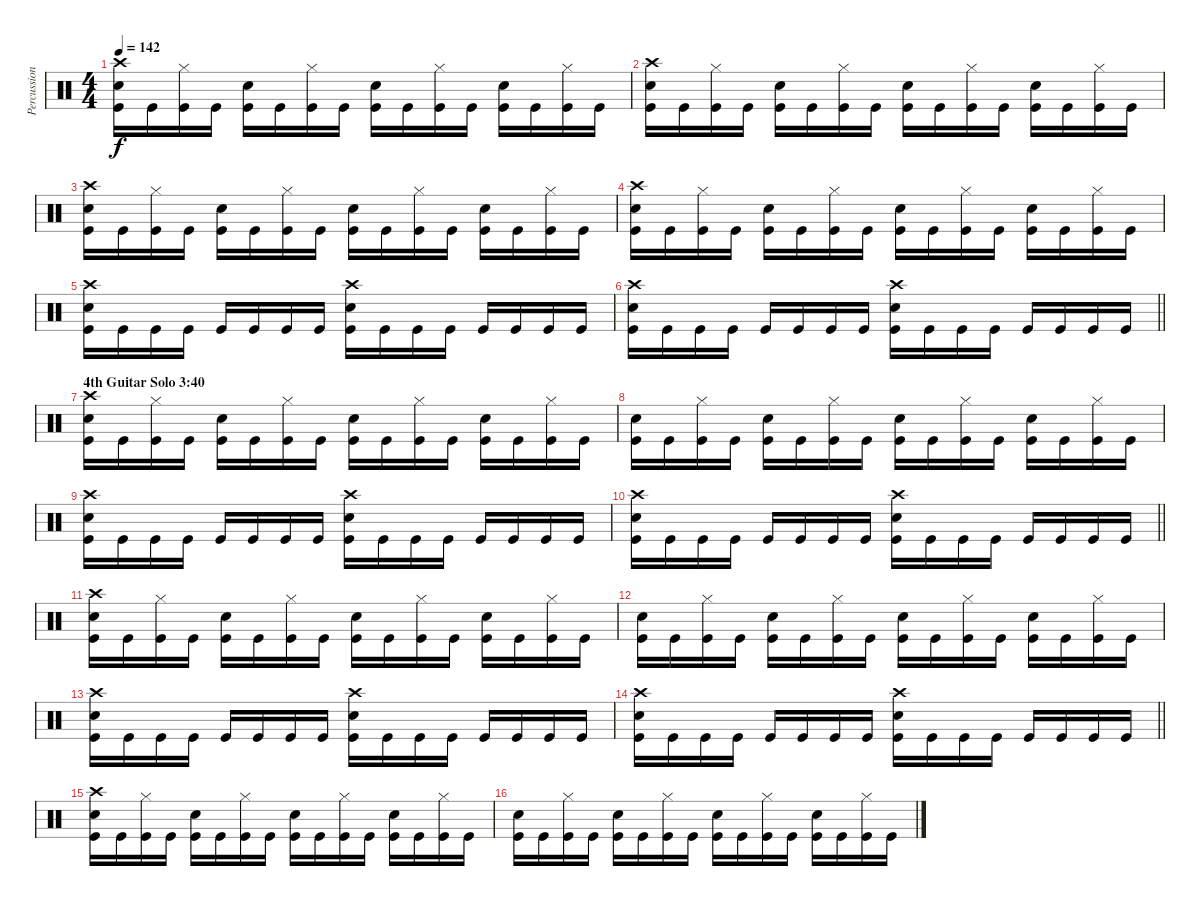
\track ("Percussion" "Percussion") {instrument percussion}
\staff {score}
\articulation defaults
\ts (4 4)
\tempo 142
\clef neutral
\ks c
("Crash high (hit)" "Snare (hit) 2" "Kick (hit)").16{dy f} "Kick (hit)".16 ("Hi-Hat (closed)" "Kick (hit)").16 "Kick (hit)".16 ("Snare (hit) 2" "Kick (hit)").16 "Kick (hit)".16 ("Hi-Hat (closed)" "Kick (hit)").16 "Kick (hit)".16 ("Snare (hit) 2" "Kick (hit)").16 "Kick (hit)".16 ("Hi-Hat (closed)" "Kick (hit)").16 "Kick (hit)".16 ("Snare (hit) 2" "Kick (hit)").16 "Kick (hit)".16 ("Hi-Hat (closed)" "Kick (hit)").16 "Kick (hit)".16 |
("Crash high (hit)" "Snare (hit) 2" "Kick (hit)").16 "Kick (hit)".16 ("Hi-Hat (closed)" "Kick (hit)").16 "Kick (hit)".16 ("Snare (hit) 2" "Kick (hit)").16 "Kick (hit)".16 ("Hi-Hat (closed)" "Kick (hit)").16 "Kick (hit)".16 ("Snare (hit) 2" "Kick (hit)").16 "Kick (hit)".16 ("Hi-Hat (closed)" "Kick (hit)").16 "Kick (hit)".16 ("Snare (hit) 2" "Kick (hit)").16 "Kick (hit)".16 ("Hi-Hat (closed)" "Kick (hit)").16 "Kick (hit)".16 |
("Crash high (hit)" "Snare (hit) 2" "Kick (hit)").16 "Kick (hit)".16 ("Hi-Hat (closed)" "Kick (hit)").16 "Kick (hit)".16 ("Snare (hit) 2" "Kick (hit)").16 "Kick (hit)".16 ("Hi-Hat (closed)" "Kick (hit)").16 "Kick (hit)".16 ("Snare (hit) 2" "Kick (hit)").16 "Kick (hit)".16 ("Hi-Hat (closed)" "Kick (hit)").16 "Kick (hit)".16 ("Snare (hit) 2" "Kick (hit)").16 "Kick (hit)".16 ("Hi-Hat (closed)" "Kick (hit)").16 "Kick (hit)".16 |
("Crash high (hit)" "Snare (hit) 2" "Kick (hit)").16 "Kick (hit)".16 ("Hi-Hat (closed)" "Kick (hit)").16 "Kick (hit)".16 ("Snare (hit) 2" "Kick (hit)").16 "Kick (hit)".16 ("Hi-Hat (closed)" "Kick (hit)").16 "Kick (hit)".16 ("Snare (hit) 2" "Kick (hit)").16 "Kick (hit)".16 ("Hi-Hat (closed)" "Kick (hit)").16 "Kick (hit)".16 ("Snare (hit) 2" "Kick (hit)").16 "Kick (hit)".16 ("Hi-Hat (closed)" "Kick (hit)").16 "Kick (hit)".16 |
("Crash high (hit)" "Snare (hit) 2" "Kick (hit)").16 "Kick (hit)".16 "Kick (hit)".16 "Kick (hit)".16 "Kick (hit)".16 "Kick (hit)".16 "Kick (hit)".16 "Kick (hit)".16 ("Crash high (hit)" "Snare (hit) 2" "Kick (hit)").16 "Kick (hit)".16 "Kick (hit)".16 "Kick (hit)".16 "Kick (hit)".16 "Kick (hit)".16 "Kick (hit)".16 "Kick (hit)".16 |
\barLineRight lightlight
("Crash high (hit)" "Snare (hit) 2" "Kick (hit)").16 "Kick (hit)".16 "Kick (hit)".16 "Kick (hit)".16 "Kick (hit)".16 "Kick (hit)".16 "Kick (hit)".16 "Kick (hit)".16 ("Crash high (hit)" "Snare (hit) 2" "Kick (hit)").16 "Kick (hit)".16 "Kick (hit)".16 "Kick (hit)".16 "Kick (hit)".16 "Kick (hit)".16 "Kick (hit)".16 "Kick (hit)".16 |
\section ("" "4th Guitar Solo 3:40")
("Crash high (hit)" "Snare (hit) 2" "Kick (hit)").16 "Kick (hit)".16 ("Hi-Hat (closed)" "Kick (hit)").16 "Kick (hit)".16 ("Snare (hit) 2" "Kick (hit)").16 "Kick (hit)".16 ("Hi-Hat (closed)" "Kick (hit)").16 "Kick (hit)".16 ("Snare (hit) 2" "Kick (hit)").16 "Kick (hit)".16 ("Hi-Hat (closed)" "Kick (hit)").16 "Kick (hit)".16 ("Snare (hit) 2" "Kick (hit)").16 "Kick (hit)".16 ("Hi-Hat (closed)" "Kick (hit)").16 "Kick (hit)".16 |
("Snare (hit) 2" "Kick (hit)").16 "Kick (hit)".16 ("Hi-Hat (closed)" "Kick (hit)").16 "Kick (hit)".16 ("Snare (hit) 2" "Kick (hit)").16 "Kick (hit)".16 ("Hi-Hat (closed)" "Kick (hit)").16 "Kick (hit)".16 ("Snare (hit) 2" "Kick (hit)").16 "Kick (hit)".16 ("Hi-Hat (closed)" "Kick (hit)").16 "Kick (hit)".16 ("Snare (hit) 2" "Kick (hit)").16 "Kick (hit)".16 ("Hi-Hat (closed)" "Kick (hit)").16 "Kick (hit)".16 |
("Crash high (hit)" "Snare (hit) 2" "Kick (hit)").16 "Kick (hit)".16 "Kick (hit)".16 "Kick (hit)".16 "Kick (hit)".16 "Kick (hit)".16 "Kick (hit)".16 "Kick (hit)".16 ("Crash high (hit)" "Snare (hit) 2" "Kick (hit)").16 "Kick (hit)".16 "Kick (hit)".16 "Kick (hit)".16 "Kick (hit)".16 "Kick (hit)".16 "Kick (hit)".16 "Kick (hit)".16 |
\barLineRight lightlight
("Crash high (hit)" "Snare (hit) 2" "Kick (hit)").16 "Kick (hit)".16 "Kick (hit)".16 "Kick (hit)".16 "Kick (hit)".16 "Kick (hit)".16 "Kick (hit)".16 "Kick (hit)".16 ("Crash high (hit)" "Snare (hit) 2" "Kick (hit)").16 "Kick (hit)".16 "Kick (hit)".16 "Kick (hit)".16 "Kick (hit)".16 "Kick (hit)".16 "Kick (hit)".16 "Kick (hit)".16 |
("Crash high (hit)" "Snare (hit) 2" "Kick (hit)").16 "Kick (hit)".16 ("Hi-Hat (closed)" "Kick (hit)").16 "Kick (hit)".16 ("Snare (hit) 2" "Kick (hit)").16 "Kick (hit)".16 ("Hi-Hat (closed)" "Kick (hit)").16 "Kick (hit)".16 ("Snare (hit) 2" "Kick (hit)").16 "Kick (hit)".16 ("Hi-Hat (closed)" "Kick (hit)").16 "Kick (hit)".16 ("Snare (hit) 2" "Kick (hit)").16 "Kick (hit)".16 ("Hi-Hat (closed)" "Kick (hit)").16 "Kick (hit)".16 |
("Snare (hit) 2" "Kick (hit)").16 "Kick (hit)".16 ("Hi-Hat (closed)" "Kick (hit)").16 "Kick (hit)".16 ("Snare (hit) 2" "Kick (hit)").16 "Kick (hit)".16 ("Hi-Hat (closed)" "Kick (hit)").16 "Kick (hit)".16 ("Snare (hit) 2" "Kick (hit)").16 "Kick (hit)".16 ("Hi-Hat (closed)" "Kick (hit)").16 "Kick (hit)".16 ("Snare (hit) 2" "Kick (hit)").16 "Kick (hit)".16 ("Hi-Hat (closed)" "Kick (hit)").16 "Kick (hit)".16 |
("Crash high (hit)" "Snare (hit) 2" "Kick (hit)").16 "Kick (hit)".16 "Kick (hit)".16 "Kick (hit)".16 "Kick (hit)".16 "Kick (hit)".16 "Kick (hit)".16 "Kick (hit)".16 ("Crash high (hit)" "Snare (hit) 2" "Kick (hit)").16 "Kick (hit)".16 "Kick (hit)".16 "Kick (hit)".16 "Kick (hit)".16 "Kick (hit)".16 "Kick (hit)".16 "Kick (hit)".16 |
\barLineRight lightlight
("Crash high (hit)" "Snare (hit) 2" "Kick (hit)").16 "Kick (hit)".16 "Kick (hit)".16 "Kick (hit)".16 "Kick (hit)".16 "Kick (hit)".16 "Kick (hit)".16 "Kick (hit)".16 ("Crash high (hit)" "Snare (hit) 2" "Kick (hit)").16 "Kick (hit)".16 "Kick (hit)".16 "Kick (hit)".16 "Kick (hit)".16 "Kick (hit)".16 "Kick (hit)".16 "Kick (hit)".16 |
("Crash high (hit)" "Snare (hit) 2" "Kick (hit)").16 "Kick (hit)".16 ("Hi-Hat (closed)" "Kick (hit)").16 "Kick (hit)".16 ("Snare (hit) 2" "Kick (hit)").16 "Kick (hit)".16 ("Hi-Hat (closed)" "Kick (hit)").16 "Kick (hit)".16 ("Snare (hit) 2" "Kick (hit)").16 "Kick (hit)".16 ("Hi-Hat (closed)" "Kick (hit)").16 "Kick (hit)".16 ("Snare (hit) 2" "Kick (hit)").16 "Kick (hit)".16 ("Hi-Hat (closed)" "Kick (hit)").16 "Kick (hit)".16 |
("Snare (hit) 2" "Kick (hit)").16 "Kick (hit)".16 ("Hi-Hat (closed)" "Kick (hit)").16 "Kick (hit)".16 ("Snare (hit) 2" "Kick (hit)").16 "Kick (hit)".16 ("Hi-Hat (closed)" "Kick (hit)").16 "Kick (hit)".16 ("Snare (hit) 2" "Kick (hit)").16 "Kick (hit)".16 ("Hi-Hat (closed)" "Kick (hit)").16 "Kick (hit)".16 ("Snare (hit) 2" "Kick (hit)").16 "Kick (hit)".16 ("Hi-Hat (closed)" "Kick (hit)").16 "Kick (hit)".16
